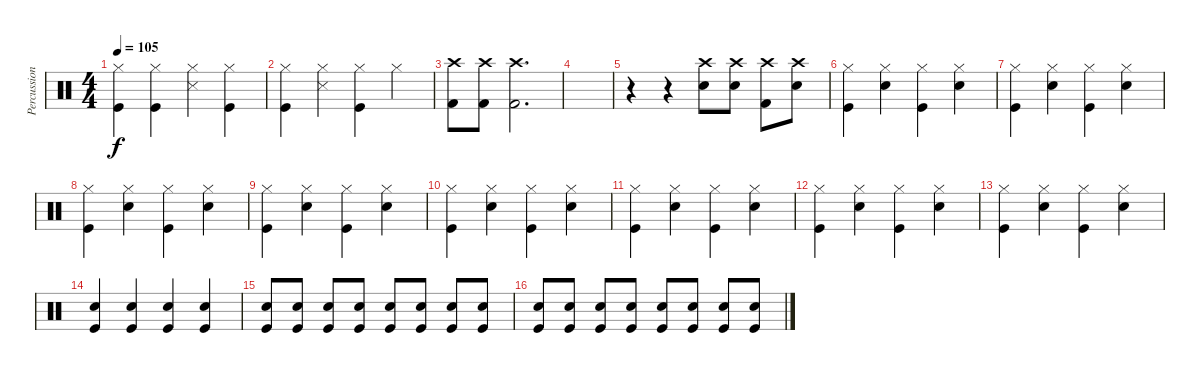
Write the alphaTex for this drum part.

\track ("Percussion" "Percussion") {instrument percussion}
\staff {score}
\articulation defaults
\ts (4 4)
\tempo 105
\clef neutral
\ks c
("Hi-Hat (closed)" "Kick (hit)").4{dy f} ("Hi-Hat (closed)" "Kick (hit)").4 ("Hi-Hat (closed)" "Snare (side stick) 3").4 ("Hi-Hat (closed)" "Kick (hit)").4 |
("Hi-Hat (closed)" "Kick (hit)").4 ("Hi-Hat (closed)" "Snare (side stick) 3").4 ("Hi-Hat (closed)" "Kick (hit)").4 "Hi-Hat (closed)".4 |
("Crash high (hit)" "Kick (hit) 2").8 ("Crash high (hit)" "Kick (hit) 2").8 ("Crash high (hit)" "Kick (hit) 2").2{d} |
|
r.4 r.4 ("Crash high (hit)" "Snare (hit) 2").8 ("Crash high (hit)" "Snare (hit) 2").8 ("Crash high (hit)" "Kick (hit) 2").8 ("Crash high (hit)" "Snare (hit) 2").8 |
("Hi-Hat (closed)" "Kick (hit)").4 ("Hi-Hat (closed)" "Snare (hit) 2").4 ("Hi-Hat (closed)" "Kick (hit)").4 ("Hi-Hat (closed)" "Snare (hit) 2").4 |
("Hi-Hat (closed)" "Kick (hit)").4 ("Hi-Hat (closed)" "Snare (hit) 2").4 ("Hi-Hat (closed)" "Kick (hit)").4 ("Hi-Hat (closed)" "Snare (hit) 2").4 |
("Hi-Hat (closed)" "Kick (hit)").4 ("Hi-Hat (closed)" "Snare (hit) 2").4 ("Hi-Hat (closed)" "Kick (hit)").4 ("Hi-Hat (closed)" "Snare (hit) 2").4 |
("Hi-Hat (closed)" "Kick (hit)").4 ("Hi-Hat (closed)" "Snare (hit) 2").4 ("Hi-Hat (closed)" "Kick (hit)").4 ("Hi-Hat (closed)" "Snare (hit) 2").4 |
("Hi-Hat (closed)" "Kick (hit)").4 ("Hi-Hat (closed)" "Snare (hit) 2").4 ("Hi-Hat (closed)" "Kick (hit)").4 ("Hi-Hat (closed)" "Snare (hit) 2").4 |
("Hi-Hat (closed)" "Kick (hit)").4 ("Hi-Hat (closed)" "Snare (hit) 2").4 ("Hi-Hat (closed)" "Kick (hit)").4 ("Hi-Hat (closed)" "Snare (hit) 2").4 |
("Hi-Hat (closed)" "Kick (hit)").4 ("Hi-Hat (closed)" "Snare (hit) 2").4 ("Hi-Hat (closed)" "Kick (hit)").4 ("Hi-Hat (closed)" "Snare (hit) 2").4 |
("Hi-Hat (closed)" "Kick (hit)").4 ("Hi-Hat (closed)" "Snare (hit) 2").4 ("Hi-Hat (closed)" "Kick (hit)").4 ("Hi-Hat (closed)" "Snare (hit) 2").4 |
("Snare (hit) 2" "Kick (hit)").4 ("Snare (hit) 2" "Kick (hit)").4 ("Snare (hit) 2" "Kick (hit)").4 ("Snare (hit) 2" "Kick (hit)").4 |
("Snare (hit) 2" "Kick (hit)").8 ("Snare (hit) 2" "Kick (hit)").8 ("Snare (hit) 2" "Kick (hit)").8 ("Snare (hit) 2" "Kick (hit)").8 ("Snare (hit) 2" "Kick (hit)").8 ("Snare (hit) 2" "Kick (hit)").8 ("Snare (hit) 2" "Kick (hit)").8 ("Snare (hit) 2" "Kick (hit)").8 |
("Snare (hit) 2" "Kick (hit)").8 ("Snare (hit) 2" "Kick (hit)").8 ("Snare (hit) 2" "Kick (hit)").8 ("Snare (hit) 2" "Kick (hit)").8 ("Snare (hit) 2" "Kick (hit)").8 ("Snare (hit) 2" "Kick (hit)").8 ("Snare (hit) 2" "Kick (hit)").8 ("Snare (hit) 2" "Kick (hit)").8
